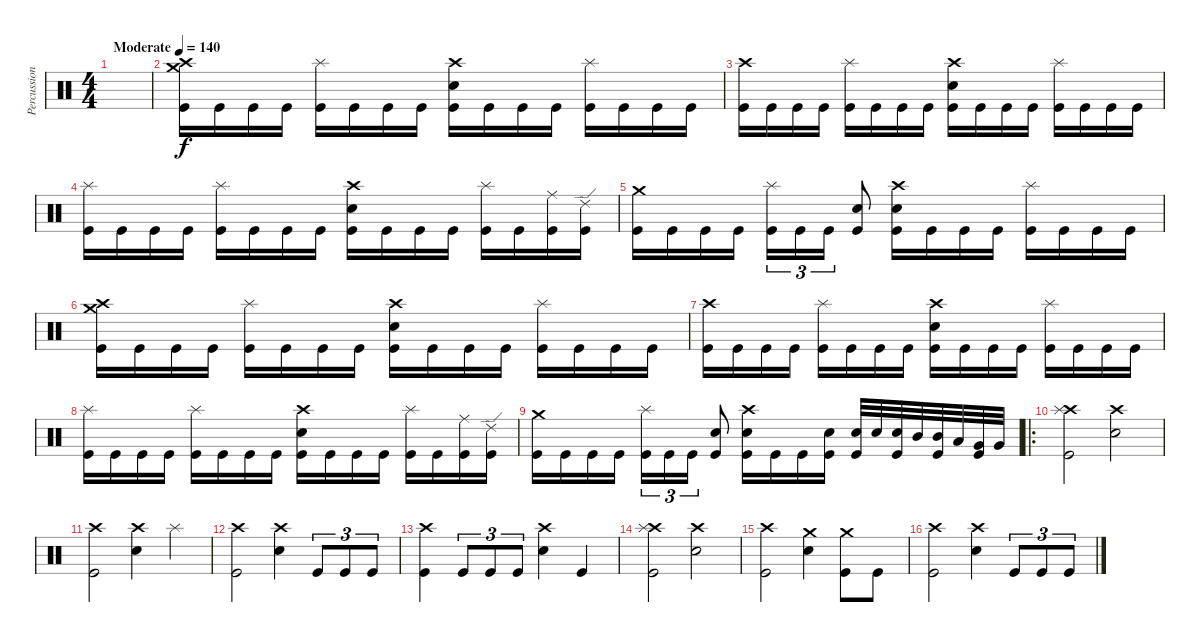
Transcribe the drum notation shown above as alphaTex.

\track ("Percussion" "Percussion") {instrument percussion}
\staff {score}
\articulation defaults
\ts (4 4)
\tempo (140 "Moderate")
\clef neutral
\ks c
|
("Crash high (hit)" "Crash medium (hit)" "Kick (hit)").16 "Kick (hit)".16 "Kick (hit)".16 "Kick (hit)".16 ("Splash (hit)" "Kick (hit)").16 "Kick (hit)".16 "Kick (hit)".16 "Kick (hit)".16 ("Crash high (hit)" "Snare (hit) 2" "Kick (hit)").16 "Kick (hit)".16 "Kick (hit)".16 "Kick (hit)".16 ("Splash (hit)" "Kick (hit)").16 "Kick (hit)".16 "Kick (hit)".16 "Kick (hit)".16 |
("Crash high (hit)" "Kick (hit)").16 "Kick (hit)".16 "Kick (hit)".16 "Kick (hit)".16 ("Splash (hit)" "Kick (hit)").16 "Kick (hit)".16 "Kick (hit)".16 "Kick (hit)".16 ("Crash high (hit)" "Snare (hit) 2" "Kick (hit)").16 "Kick (hit)".16 "Kick (hit)".16 "Kick (hit)".16 ("Splash (hit)" "Kick (hit)").16 "Kick (hit)".16 "Kick (hit)".16 "Kick (hit)".16 |
("Splash (hit)" "Kick (hit)").16 "Kick (hit)".16 "Kick (hit)".16 "Kick (hit)".16 ("Splash (hit)" "Kick (hit)").16 "Kick (hit)".16 "Kick (hit)".16 "Kick (hit)".16 ("Crash high (hit)" "Snare (hit) 2" "Kick (hit)").16 "Kick (hit)".16 "Kick (hit)".16 "Kick (hit)".16 ("Splash (hit)" "Kick (hit)").16 "Kick (hit)".16 ("Ride (middle)" "Kick (hit)").16 ("Ride (edge) 2" "Kick (hit)").16 |
("Crash medium (hit)" "Kick (hit)").16 "Kick (hit)".16 "Kick (hit)".16 "Kick (hit)".16 ("Splash (hit)" "Kick (hit)").16{tu (3 2)} "Kick (hit)".16{tu (3 2)} "Kick (hit)".16{tu (3 2)} ("Snare (hit) 2" "Kick (hit)").8 ("Crash high (hit)" "Snare (hit) 2" "Kick (hit)").16 "Kick (hit)".16 "Kick (hit)".16 "Kick (hit)".16 ("Splash (hit)" "Kick (hit)").16 "Kick (hit)".16 "Kick (hit)".16 "Kick (hit)".16 |
("Crash high (hit)" "Crash medium (hit)" "Kick (hit)").16 "Kick (hit)".16 "Kick (hit)".16 "Kick (hit)".16 ("Splash (hit)" "Kick (hit)").16 "Kick (hit)".16 "Kick (hit)".16 "Kick (hit)".16 ("Crash high (hit)" "Snare (hit) 2" "Kick (hit)").16 "Kick (hit)".16 "Kick (hit)".16 "Kick (hit)".16 ("Splash (hit)" "Kick (hit)").16 "Kick (hit)".16 "Kick (hit)".16 "Kick (hit)".16 |
("Crash high (hit)" "Kick (hit)").16 "Kick (hit)".16 "Kick (hit)".16 "Kick (hit)".16 ("Splash (hit)" "Kick (hit)").16 "Kick (hit)".16 "Kick (hit)".16 "Kick (hit)".16 ("Crash high (hit)" "Snare (hit) 2" "Kick (hit)").16 "Kick (hit)".16 "Kick (hit)".16 "Kick (hit)".16 ("Splash (hit)" "Kick (hit)").16 "Kick (hit)".16 "Kick (hit)".16 "Kick (hit)".16 |
("Splash (hit)" "Kick (hit)").16 "Kick (hit)".16 "Kick (hit)".16 "Kick (hit)".16 ("Splash (hit)" "Kick (hit)").16 "Kick (hit)".16 "Kick (hit)".16 "Kick (hit)".16 ("Crash high (hit)" "Snare (hit) 2" "Kick (hit)").16 "Kick (hit)".16 "Kick (hit)".16 "Kick (hit)".16 ("Splash (hit)" "Kick (hit)").16 "Kick (hit)".16 ("Ride (middle)" "Kick (hit)").16 ("Ride (edge) 2" "Kick (hit)").16 |
("Crash medium (hit)" "Kick (hit)").16 "Kick (hit)".16 "Kick (hit)".16 "Kick (hit)".16 ("Splash (hit)" "Kick (hit)").16{tu (3 2)} "Kick (hit)".16{tu (3 2)} "Kick (hit)".16{tu (3 2)} ("Snare (hit) 2" "Kick (hit)").8 ("Crash high (hit)" "Snare (hit) 2" "Kick (hit)").16 "Kick (hit)".16 "Kick (hit)".16 ("Snare (hit) 2" "Kick (hit)").16 ("Snare (hit) 2" "Kick (hit)").32 "Snare (hit) 2".32 ("Snare (hit) 2" "Kick (hit)").32 "Mid Tom (hit)".32 ("Mid Tom (hit)" "Kick (hit)").32 "Low Tom (hit)".32 ("Very Low Tom (hit)" "Kick (hit)").32 "Very Low Tom (hit)".32 |
\ro
("Crash high (hit)" "Splash (hit)" "Kick (hit)").2 ("Crash high (hit)" "Snare (hit) 2").2 |
("Crash high (hit)" "Kick (hit)").2 ("Crash high (hit)" "Snare (hit) 2").4 "Splash (hit)".4 |
("Crash high (hit)" "Kick (hit)").2 ("Crash high (hit)" "Snare (hit) 2").4 "Kick (hit)".8{tu (3 2)} "Kick (hit)".8{tu (3 2)} "Kick (hit)".8{tu (3 2)} |
("Crash high (hit)" "Kick (hit)").4 "Kick (hit)".8{tu (3 2)} "Kick (hit)".8{tu (3 2)} "Kick (hit)".8{tu (3 2)} ("Crash high (hit)" "Snare (hit) 2").4 "Kick (hit)".4 |
("Crash high (hit)" "Splash (hit)" "Kick (hit)").2 ("Crash high (hit)" "Snare (hit) 2").2 |
("Crash high (hit)" "Kick (hit)").2 ("Crash medium (hit)" "Snare (hit) 2").4 ("Crash medium (hit)" "Kick (hit)").8 "Kick (hit)".8 |
("Crash high (hit)" "Kick (hit)").2 ("Crash high (hit)" "Snare (hit) 2").4 "Kick (hit)".8{tu (3 2)} "Kick (hit)".8{tu (3 2)} "Kick (hit)".8{tu (3 2)}
